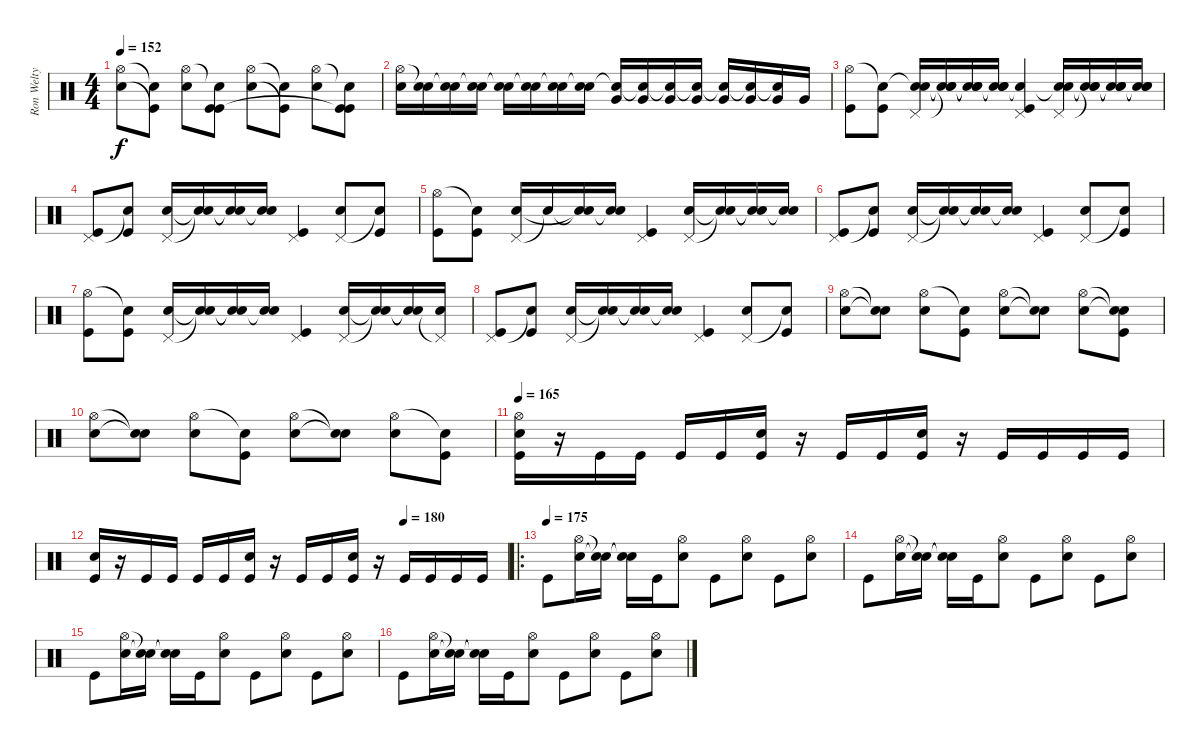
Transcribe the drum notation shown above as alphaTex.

\track ("Ron Welty" "Ron Welty") {instrument percussion}
\staff {score}
\articulation defaults
\ts (4 4)
\tempo 152
\clef neutral
\ks c
("Hi-Hat (open)" "Electric Snare (hit)").8{dy f} ("Snare (hit)"{t} "Kick (hit)"{t}).8 ("Hi-Hat (open)" "Electric Snare (hit)").8 ("Snare (hit)"{t} "Kick (hit)" "Kick (hit)").8 ("Hi-Hat (open)" "Electric Snare (hit)").8 ("Snare (hit)"{t} "Kick (hit)"{t}).8 ("Hi-Hat (open)" "Electric Snare (hit)").8 ("Snare (hit)"{t} "Kick (hit)" "Kick (hit)"{t}).8 |
("Hi-Hat (open)" "Electric Snare (hit)").16 ("Snare (hit)"{t} "Electric Snare (hit)").16 ("Snare (hit)"{t} "Electric Snare (hit)").16 ("Snare (hit)"{t} "Electric Snare (hit)").16 ("Snare (hit)"{t} "Electric Snare (hit)").16 ("Snare (hit)"{t} "Electric Snare (hit)").16 ("Snare (hit)"{t} "Electric Snare (hit)").16 ("Snare (hit)"{t} "Electric Snare (hit)").16 ("Snare (hit)"{t} "Very Low Tom (hit)").16 ("Snare (hit)"{t} "Very Low Tom (hit)").16 ("Snare (hit)"{t} "Very Low Tom (hit)").16 ("Snare (hit)"{t} "Very Low Tom (hit)").16 ("Snare (hit)"{t} "Very Low Tom (hit)").16 ("Snare (hit)"{t} "Very Low Tom (hit)").16 ("Snare (hit)"{t} "Very Low Tom (hit)").16 "Very Low Tom (hit)".16 |
("Hi-Hat (open)" "Kick (hit)").8 ("Snare (hit)"{t} "Kick (hit)").8 ("Snare (hit)"{t} "Pedal Hi-Hat (hit)" "Electric Snare (hit)").16 ("Snare (hit)"{t} "Snare (hit)"{t} "Snare (hit)"{t}).16 ("Snare (hit)"{t} "Snare (hit)"{t} "Snare (hit)"{t}).16 ("Snare (hit)"{t} "Snare (hit)"{t} "Electric Snare (hit)").16 ("Snare (hit)"{t} "Pedal Hi-Hat (hit)" "Kick (hit)").4 ("Snare (hit)"{t} "Pedal Hi-Hat (hit)" "Electric Snare (hit)").16 ("Snare (hit)"{t} "Snare (hit)"{t} "Snare (hit)"{t}).16 ("Snare (hit)"{t} "Snare (hit)"{t} "Snare (hit)"{t}).16 ("Snare (hit)"{t} "Snare (hit)"{t} "Electric Snare (hit)").16 |
("Pedal Hi-Hat (hit)" "Kick (hit)").8 ("Snare (hit)"{t} "Kick (hit)").8 ("Pedal Hi-Hat (hit)" "Electric Snare (hit)").16 ("Snare (hit)"{t} "Snare (hit)"{t}).16 ("Snare (hit)"{t} "Snare (hit)"{t}).16 ("Snare (hit)"{t} "Electric Snare (hit)").16 ("Pedal Hi-Hat (hit)" "Kick (hit)").4 ("Pedal Hi-Hat (hit)" "Electric Snare (hit)").8 ("Snare (hit)"{t} "Kick (hit)").8 |
("Hi-Hat (open)" "Kick (hit)").8 ("Snare (hit)"{t} "Kick (hit)").8 ("Pedal Hi-Hat (hit)" "Electric Snare (hit)").16 "Snare (hit)"{t}.16 ("Snare (hit)"{t} "Snare (hit)"{t}).16 ("Snare (hit)"{t} "Electric Snare (hit)").16 ("Pedal Hi-Hat (hit)" "Kick (hit)").4 ("Pedal Hi-Hat (hit)" "Electric Snare (hit)").16 ("Snare (hit)"{t} "Snare (hit)"{t}).16 ("Snare (hit)"{t} "Snare (hit)"{t}).16 ("Snare (hit)"{t} "Electric Snare (hit)").16 |
("Pedal Hi-Hat (hit)" "Kick (hit)").8 ("Snare (hit)"{t} "Kick (hit)").8 ("Pedal Hi-Hat (hit)" "Electric Snare (hit)").16 ("Snare (hit)"{t} "Snare (hit)"{t}).16 ("Snare (hit)"{t} "Snare (hit)"{t}).16 ("Snare (hit)"{t} "Electric Snare (hit)").16 ("Pedal Hi-Hat (hit)" "Kick (hit)").4 ("Pedal Hi-Hat (hit)" "Electric Snare (hit)").8 ("Snare (hit)"{t} "Kick (hit)").8 |
("Hi-Hat (open)" "Kick (hit)").8 ("Snare (hit)"{t} "Kick (hit)").8 ("Pedal Hi-Hat (hit)" "Electric Snare (hit)").16 ("Snare (hit)"{t} "Snare (hit)"{t}).16 ("Snare (hit)"{t} "Snare (hit)"{t}).16 ("Snare (hit)"{t} "Electric Snare (hit)").16 ("Pedal Hi-Hat (hit)" "Kick (hit)").4 ("Pedal Hi-Hat (hit)" "Electric Snare (hit)").16 ("Snare (hit)"{t} "Snare (hit)"{t}).16 ("Snare (hit)"{t} "Snare (hit)"{t}).16 ("Pedal Hi-Hat (hit)"{t} "Electric Snare (hit)").16 |
("Pedal Hi-Hat (hit)" "Kick (hit)").8 ("Snare (hit)"{t} "Kick (hit)").8 ("Pedal Hi-Hat (hit)" "Electric Snare (hit)").16 ("Snare (hit)"{t} "Snare (hit)"{t}).16 ("Snare (hit)"{t} "Snare (hit)"{t}).16 ("Snare (hit)"{t} "Electric Snare (hit)").16 ("Pedal Hi-Hat (hit)" "Kick (hit)").4 ("Pedal Hi-Hat (hit)" "Electric Snare (hit)").8 ("Snare (hit)"{t} "Kick (hit)").8 |
("Hi-Hat (open)" "Electric Snare (hit)").8 ("Snare (hit)"{t} "Snare (hit)"{t}).8 ("Hi-Hat (open)" "Electric Snare (hit)").8 ("Snare (hit)"{t} "Kick (hit)").8 ("Hi-Hat (open)" "Electric Snare (hit)").8 ("Snare (hit)"{t} "Snare (hit)"{t}).8 ("Hi-Hat (open)" "Electric Snare (hit)").8 ("Snare (hit)"{t} "Snare (hit)"{t} "Kick (hit)").8 |
("Hi-Hat (open)" "Electric Snare (hit)").8 ("Snare (hit)"{t} "Snare (hit)"{t}).8 ("Hi-Hat (open)" "Electric Snare (hit)").8 ("Snare (hit)"{t} "Kick (hit)").8 ("Hi-Hat (open)" "Electric Snare (hit)").8 ("Snare (hit)"{t} "Snare (hit)"{t}).8 ("Hi-Hat (open)" "Electric Snare (hit)").8 ("Snare (hit)"{t} "Kick (hit)").8 |
\tempo 165
("Hi-Hat (open)" "Electric Snare (hit)" "Kick (hit)").16 r.16 "Kick (hit)".16 "Kick (hit)".16 "Kick (hit)".16 "Kick (hit)".16 ("Electric Snare (hit)" "Kick (hit)").16 r.16 "Kick (hit)".16 "Kick (hit)".16 ("Electric Snare (hit)" "Kick (hit)").16 r.16 "Kick (hit)".16 "Kick (hit)".16 "Kick (hit)".16 "Kick (hit)".16 |
\tempo (180 0.75)
("Electric Snare (hit)" "Kick (hit)").16 r.16 "Kick (hit)".16 "Kick (hit)".16 "Kick (hit)".16 "Kick (hit)".16 ("Electric Snare (hit)" "Kick (hit)").16 r.16 "Kick (hit)".16 "Kick (hit)".16 ("Electric Snare (hit)" "Kick (hit)").16 r.16 "Kick (hit)".16 "Kick (hit)".16 "Kick (hit)".16 "Kick (hit)".16 |
\ro
\tempo (175)
"Kick (hit)".8 ("Hi-Hat (open)" "Electric Snare (hit)").16 ("Snare (hit)"{t} "Snare (hit)"{t}).16 ("Snare (hit)"{t} "Snare (hit)"{t}).16 "Kick (hit)".16 ("Hi-Hat (open)" "Electric Snare (hit)").8 "Kick (hit)".8 ("Hi-Hat (open)" "Electric Snare (hit)").8 "Kick (hit)".8 ("Hi-Hat (open)" "Electric Snare (hit)").8 |
"Kick (hit)".8 ("Hi-Hat (open)" "Electric Snare (hit)").16 ("Snare (hit)"{t} "Snare (hit)"{t}).16 ("Snare (hit)"{t} "Snare (hit)"{t}).16 "Kick (hit)".16 ("Hi-Hat (open)" "Electric Snare (hit)").8 "Kick (hit)".8 ("Hi-Hat (open)" "Electric Snare (hit)").8 "Kick (hit)".8 ("Hi-Hat (open)" "Electric Snare (hit)").8 |
"Kick (hit)".8 ("Hi-Hat (open)" "Electric Snare (hit)").16 ("Snare (hit)"{t} "Snare (hit)"{t}).16 ("Snare (hit)"{t} "Snare (hit)"{t}).16 "Kick (hit)".16 ("Hi-Hat (open)" "Electric Snare (hit)").8 "Kick (hit)".8 ("Hi-Hat (open)" "Electric Snare (hit)").8 "Kick (hit)".8 ("Hi-Hat (open)" "Electric Snare (hit)").8 |
"Kick (hit)".8 ("Hi-Hat (open)" "Electric Snare (hit)").16 ("Snare (hit)"{t} "Snare (hit)"{t}).16 ("Snare (hit)"{t} "Snare (hit)"{t}).16 "Kick (hit)".16 ("Hi-Hat (open)" "Electric Snare (hit)").8 "Kick (hit)".8 ("Hi-Hat (open)" "Electric Snare (hit)").8 "Kick (hit)".8 ("Hi-Hat (open)" "Electric Snare (hit)").8
